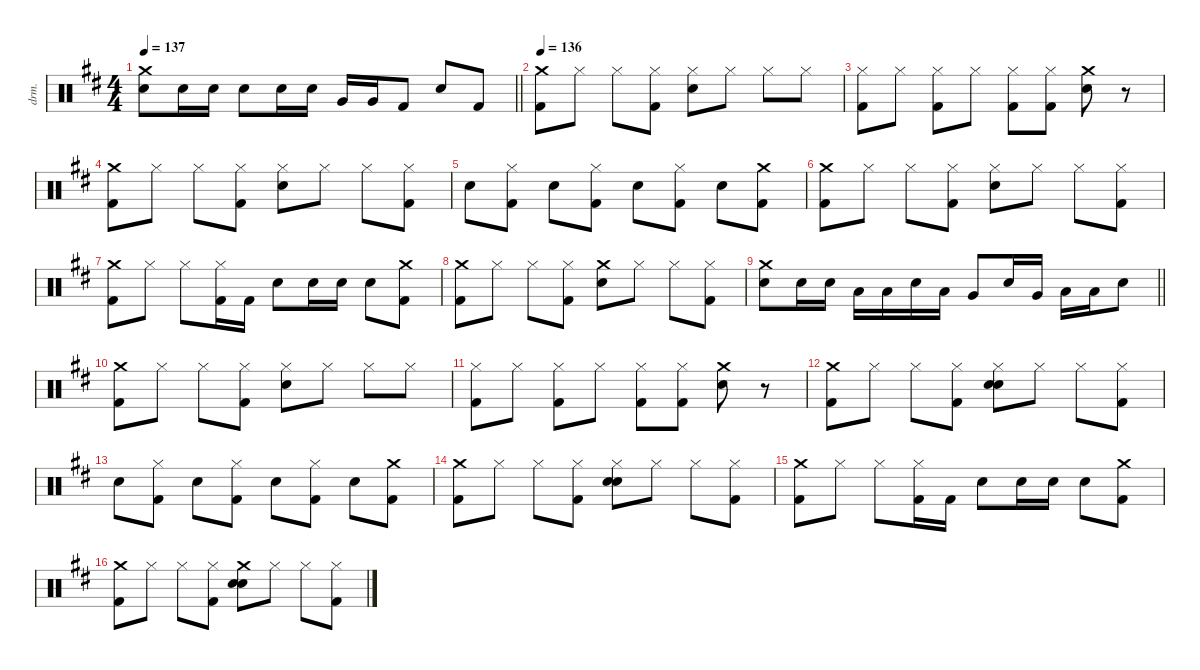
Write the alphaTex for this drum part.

\defaultSystemsLayout 4
\hideDynamics
\bracketExtendMode nobrackets
\otherSystemsTrackNameOrientation horizontal
\track ("Lars - Drums" "drm.") {defaultSystemsLayout 4 instrument percussion}
\staff {score}
\articulation defaults
\ts (4 4)
\tempo 137
\clef neutral
\barLineRight lightlight
\ks bminor
("Crash medium (hit)"{acc forcenatural} "Snare (hit) 2"{acc forcenatural}).8{dy f beam Down} "Snare (hit) 2"{acc forcenatural}.16{beam Down} "Snare (hit) 2"{acc forcenatural}.16{beam Down} "Snare (hit) 2"{acc forcenatural}.8{beam Down} "Snare (hit) 2"{acc forcenatural}.16{beam Down} "Snare (hit) 2"{acc forcenatural}.16{beam Down} "Very Low Tom (hit)"{acc forcenatural}.16{dy ff beam Up} "Very Low Tom (hit)"{acc forcenatural}.16{beam Up} "Kick (hit) 2"{acc forcenatural}.8{dy f beam Up} "Snare (hit) 2"{acc forcenatural}.8{beam Up} "Kick (hit) 2"{acc forcenatural}.8{beam Up} |
\tempo 136
("Crash medium (hit)"{acc forcenatural} "Kick (hit) 2"{acc forcenatural}).8{beam Down} "Hi-Hat (closed)"{acc forcenatural}.8{beam Down} "Hi-Hat (closed)"{acc forcenatural}.8{beam Down} ("Hi-Hat (closed)"{acc forcenatural} "Kick (hit) 2"{acc forcenatural}).8{beam Down} ("Hi-Hat (closed)"{acc forcenatural} "Snare (hit) 2"{acc forcenatural}).8{beam Down} "Hi-Hat (closed)"{acc forcenatural}.8{beam Down} "Hi-Hat (closed)"{acc forcenatural}.8{beam Down} "Hi-Hat (closed)"{acc forcenatural}.8{beam Down} |
("Hi-Hat (closed)"{acc forcenatural} "Kick (hit) 2"{acc forcenatural}).8{beam Down} "Hi-Hat (closed)"{acc forcenatural}.8{beam Down} ("Hi-Hat (closed)"{acc forcenatural} "Kick (hit) 2"{acc forcenatural}).8{beam Down} "Hi-Hat (closed)"{acc forcenatural}.8{beam Down} ("Hi-Hat (closed)"{acc forcenatural} "Kick (hit) 2"{acc forcenatural}).8{beam Down} ("Hi-Hat (closed)"{acc forcenatural} "Kick (hit) 2"{acc forcenatural}).8{beam Down} ("Crash medium (hit)"{acc forcenatural} "Snare (hit) 2"{acc forcenatural}).8{beam Down} r.8{beam Down} |
("Crash medium (hit)"{acc forcenatural} "Kick (hit) 2"{acc forcenatural}).8{beam Down} "Hi-Hat (closed)"{acc forcenatural}.8{beam Down} "Hi-Hat (closed)"{acc forcenatural}.8{beam Down} ("Hi-Hat (closed)"{acc forcenatural} "Kick (hit) 2"{acc forcenatural}).8{beam Down} ("Hi-Hat (closed)"{acc forcenatural} "Snare (hit) 2"{acc forcenatural}).8{beam Down} "Hi-Hat (closed)"{acc forcenatural}.8{beam Down} "Hi-Hat (closed)"{acc forcenatural}.8{beam Down} ("Hi-Hat (closed)"{acc forcenatural} "Kick (hit) 2"{acc forcenatural}).8{beam Down} |
"Snare (hit) 2"{acc forcenatural}.8{beam Down} ("Hi-Hat (closed)"{acc forcenatural} "Kick (hit) 2"{acc forcenatural}).8{beam Down} "Snare (hit) 2"{acc forcenatural}.8{beam Down} ("Hi-Hat (closed)"{acc forcenatural} "Kick (hit) 2"{acc forcenatural}).8{beam Down} "Snare (hit) 2"{acc forcenatural}.8{beam Down} ("Hi-Hat (closed)"{acc forcenatural} "Kick (hit) 2"{acc forcenatural}).8{beam Down} "Snare (hit) 2"{acc forcenatural}.8{beam Down} ("Crash medium (hit)"{acc forcenatural} "Kick (hit) 2"{acc forcenatural}).8{beam Down} |
("Crash medium (hit)"{acc forcenatural} "Kick (hit) 2"{acc forcenatural}).8{beam Down} "Hi-Hat (closed)"{acc forcenatural}.8{beam Down} "Hi-Hat (closed)"{acc forcenatural}.8{beam Down} ("Hi-Hat (closed)"{acc forcenatural} "Kick (hit) 2"{acc forcenatural}).8{beam Down} ("Hi-Hat (closed)"{acc forcenatural} "Snare (hit) 2"{acc forcenatural}).8{beam Down} "Hi-Hat (closed)"{acc forcenatural}.8{beam Down} "Hi-Hat (closed)"{acc forcenatural}.8{beam Down} ("Hi-Hat (closed)"{acc forcenatural} "Kick (hit) 2"{acc forcenatural}).8{beam Down} |
("Crash medium (hit)"{acc forcenatural} "Kick (hit) 2"{acc forcenatural}).8{beam Down} "Hi-Hat (closed)"{acc forcenatural}.8{beam Down} "Hi-Hat (closed)"{acc forcenatural}.8{beam Down} ("Hi-Hat (closed)"{acc forcenatural} "Kick (hit) 2"{acc forcenatural}).16{beam Down} "Kick (hit) 2"{acc forcenatural}.16{beam Down} "Snare (hit) 2"{acc forcenatural}.8{beam Down} "Snare (hit) 2"{acc forcenatural}.16{beam Down} "Snare (hit) 2"{acc forcenatural}.16{beam Down} "Snare (hit) 2"{acc forcenatural}.8{beam Down} ("Crash medium (hit)"{acc forcenatural} "Kick (hit) 2"{acc forcenatural}).8{beam Down} |
("Crash medium (hit)"{acc forcenatural} "Kick (hit) 2"{acc forcenatural}).8{beam Down} "Hi-Hat (closed)"{acc forcenatural}.8{beam Down} "Hi-Hat (closed)"{acc forcenatural}.8{beam Down} ("Hi-Hat (closed)"{acc forcenatural} "Kick (hit) 2"{acc forcenatural}).8{beam Down} ("Crash medium (hit)"{acc forcenatural} "Snare (hit) 2"{acc forcenatural}).8{beam Down} "Hi-Hat (closed)"{acc forcenatural}.8{beam Down} "Hi-Hat (closed)"{acc forcenatural}.8{beam Down} ("Hi-Hat (closed)"{acc forcenatural} "Kick (hit) 2"{acc forcenatural}).8{beam Down} |
\barLineRight lightlight
("Crash medium (hit)"{acc forcenatural} "Snare (hit) 2"{acc forcenatural}).8{beam Down} "Snare (hit) 2"{acc forcenatural}.16{beam Down} "Snare (hit) 2"{acc forcenatural}.16{beam Down} "Low Tom (hit)"{acc forcenatural}.16{beam Down} "Low Tom (hit)"{acc forcenatural}.16{beam Down} "Snare (hit) 2"{acc forcenatural}.16{beam Down} "Low Tom (hit)"{acc forcenatural}.16{beam Down} "Very Low Tom (hit)"{acc forcenatural}.8{beam Up} "Snare (hit) 2"{acc forcenatural}.16{beam Up} "Very Low Tom (hit)"{acc forcenatural}.16{beam Up} "Low Floor Tom (hit)"{acc forcenatural}.16{beam Down} "Low Floor Tom (hit)"{acc forcenatural}.16{beam Down} "Snare (hit) 2"{acc forcenatural}.8{beam Down} |
("Crash medium (hit)"{acc forcenatural} "Kick (hit) 2"{acc forcenatural}).8{beam Down} "Hi-Hat (closed)"{acc forcenatural}.8{beam Down} "Hi-Hat (closed)"{acc forcenatural}.8{beam Down} ("Hi-Hat (closed)"{acc forcenatural} "Kick (hit) 2"{acc forcenatural}).8{beam Down} ("Hi-Hat (closed)"{acc forcenatural} "Snare (hit) 2"{acc forcenatural}).8{beam Down} "Hi-Hat (closed)"{acc forcenatural}.8{beam Down} "Hi-Hat (closed)"{acc forcenatural}.8{beam Down} "Hi-Hat (closed)"{acc forcenatural}.8{beam Down} |
("Hi-Hat (closed)"{acc forcenatural} "Kick (hit) 2"{acc forcenatural}).8{beam Down} "Hi-Hat (closed)"{acc forcenatural}.8{beam Down} ("Hi-Hat (closed)"{acc forcenatural} "Kick (hit) 2"{acc forcenatural}).8{beam Down} "Hi-Hat (closed)"{acc forcenatural}.8{beam Down} ("Hi-Hat (closed)"{acc forcenatural} "Kick (hit) 2"{acc forcenatural}).8{beam Down} ("Hi-Hat (closed)"{acc forcenatural} "Kick (hit) 2"{acc forcenatural}).8{beam Down} ("Crash medium (hit)"{acc forcenatural} "Snare (hit) 2"{acc forcenatural}).8{beam Down} r.8{beam Down} |
("Crash medium (hit)"{acc forcenatural} "Kick (hit) 2"{acc forcenatural}).8{beam Down} "Hi-Hat (closed)"{acc forcenatural}.8{beam Down} "Hi-Hat (closed)"{acc forcenatural}.8{beam Down} ("Hi-Hat (closed)"{acc forcenatural} "Kick (hit) 2"{acc forcenatural}).8{beam Down} ("Snare (hit) 2"{acc forcenatural} "Hi-Hat (closed)"{acc forcenatural} "Snare (hit) 2"{acc forcenatural}).8{dy ff beam Down} "Hi-Hat (closed)"{acc forcenatural}.8{dy f beam Down} "Hi-Hat (closed)"{acc forcenatural}.8{beam Down} ("Hi-Hat (closed)"{acc forcenatural} "Kick (hit) 2"{acc forcenatural}).8{beam Down} |
"Snare (hit) 2"{acc forcenatural}.8{beam Down} ("Hi-Hat (closed)"{acc forcenatural} "Kick (hit) 2"{acc forcenatural}).8{beam Down} "Snare (hit) 2"{acc forcenatural}.8{beam Down} ("Hi-Hat (closed)"{acc forcenatural} "Kick (hit) 2"{acc forcenatural}).8{beam Down} "Snare (hit) 2"{acc forcenatural}.8{beam Down} ("Hi-Hat (closed)"{acc forcenatural} "Kick (hit) 2"{acc forcenatural}).8{beam Down} "Snare (hit) 2"{acc forcenatural}.8{beam Down} ("Crash medium (hit)"{acc forcenatural} "Kick (hit) 2"{acc forcenatural}).8{beam Down} |
("Crash medium (hit)"{acc forcenatural} "Kick (hit) 2"{acc forcenatural}).8{beam Down} "Hi-Hat (closed)"{acc forcenatural}.8{beam Down} "Hi-Hat (closed)"{acc forcenatural}.8{beam Down} ("Hi-Hat (closed)"{acc forcenatural} "Kick (hit) 2"{acc forcenatural}).8{beam Down} ("Snare (hit) 2"{acc forcenatural} "Hi-Hat (closed)"{acc forcenatural} "Snare (hit) 2"{acc forcenatural}).8{dy ff beam Down} "Hi-Hat (closed)"{acc forcenatural}.8{dy f beam Down} "Hi-Hat (closed)"{acc forcenatural}.8{beam Down} ("Hi-Hat (closed)"{acc forcenatural} "Kick (hit) 2"{acc forcenatural}).8{beam Down} |
("Crash medium (hit)"{acc forcenatural} "Kick (hit) 2"{acc forcenatural}).8{beam Down} "Hi-Hat (closed)"{acc forcenatural}.8{beam Down} "Hi-Hat (closed)"{acc forcenatural}.8{beam Down} ("Hi-Hat (closed)"{acc forcenatural} "Kick (hit) 2"{acc forcenatural}).16{beam Down} "Kick (hit) 2"{acc forcenatural}.16{beam Down} "Snare (hit) 2"{acc forcenatural}.8{beam Down} "Snare (hit) 2"{acc forcenatural}.16{beam Down} "Snare (hit) 2"{acc forcenatural}.16{beam Down} "Snare (hit) 2"{acc forcenatural}.8{beam Down} ("Crash medium (hit)"{acc forcenatural} "Kick (hit) 2"{acc forcenatural}).8{beam Down} |
("Crash medium (hit)"{acc forcenatural} "Kick (hit) 2"{acc forcenatural}).8{beam Down} "Hi-Hat (closed)"{acc forcenatural}.8{beam Down} "Hi-Hat (closed)"{acc forcenatural}.8{beam Down} ("Hi-Hat (closed)"{acc forcenatural} "Kick (hit) 2"{acc forcenatural}).8{beam Down} ("Snare (hit) 2"{acc forcenatural} "Crash medium (hit)"{acc forcenatural} "Snare (hit) 2"{acc forcenatural}).8{dy ff beam Down} "Hi-Hat (closed)"{acc forcenatural}.8{dy f beam Down} "Hi-Hat (closed)"{acc forcenatural}.8{beam Down} ("Hi-Hat (closed)"{acc forcenatural} "Kick (hit) 2"{acc forcenatural}).8{beam Down}
